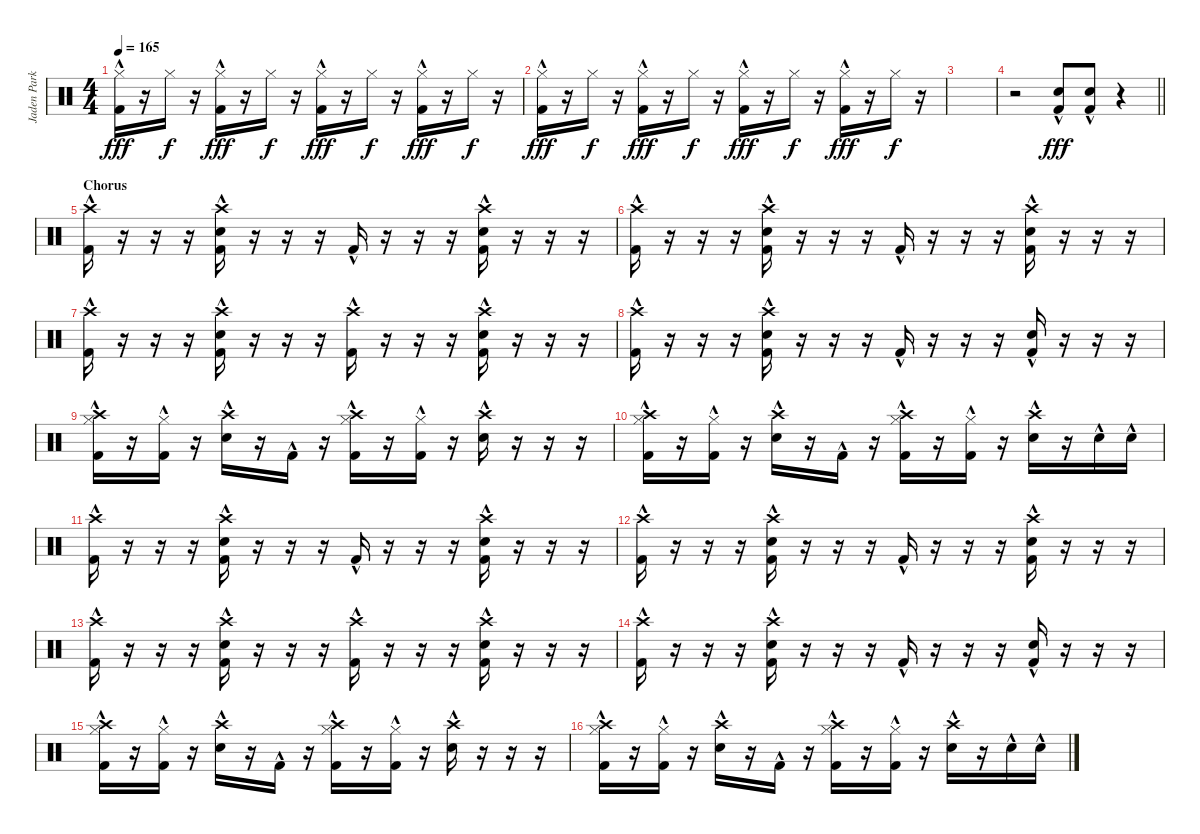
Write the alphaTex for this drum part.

\track ("Jaden Parkes" "Jaden Park") {instrument percussion}
\staff {score}
\articulation defaults
\ts (4 4)
\tempo 165
\clef neutral
\ks c
("Hi-Hat (closed)" "Kick (hit) 2"{hac}).16{dy fff} r.16 "Hi-Hat (closed)".16{dy f} r.16 ("Hi-Hat (closed)"{hac} "Kick (hit) 2"{hac}).16{dy fff} r.16 "Hi-Hat (closed)".16{dy f} r.16 ("Hi-Hat (closed)" "Kick (hit) 2"{hac}).16{dy fff} r.16 "Hi-Hat (closed)".16{dy f} r.16 ("Hi-Hat (closed)"{hac} "Kick (hit) 2"{hac}).16{dy fff} r.16 "Hi-Hat (closed)".16{dy f} r.16 |
("Hi-Hat (closed)" "Kick (hit) 2"{hac}).16{dy fff} r.16 "Hi-Hat (closed)".16{dy f} r.16 ("Hi-Hat (closed)"{hac} "Kick (hit) 2"{hac}).16{dy fff} r.16 "Hi-Hat (closed)".16{dy f} r.16 ("Hi-Hat (closed)" "Kick (hit) 2"{hac}).16{dy fff} r.16 "Hi-Hat (closed)".16{dy f} r.16 ("Hi-Hat (closed)"{hac} "Kick (hit) 2"{hac}).16{dy fff} r.16 "Hi-Hat (closed)".16{dy f} r.16 |
|
\barLineRight lightlight
r.2 ("Electric Snare (hit)"{hac} "Kick (hit) 2"{hac}).8{dy fff} ("Electric Snare (hit)"{hac} "Kick (hit) 2"{hac}).8 r.4 |
\section ("" "Chorus")
("Crash high (hit)" "Kick (hit) 2"{hac}).16 r.16 r.16 r.16 ("Crash high (hit)"{hac} "Electric Snare (hit)" "Kick (hit) 2"{hac}).16 r.16 r.16 r.16 "Kick (hit) 2"{hac}.16 r.16 r.16 r.16 ("Crash high (hit)"{hac} "Electric Snare (hit)" "Kick (hit) 2"{hac}).16 r.16 r.16 r.16 |
("Crash high (hit)" "Kick (hit) 2"{hac}).16 r.16 r.16 r.16 ("Crash high (hit)"{hac} "Electric Snare (hit)" "Kick (hit) 2"{hac}).16 r.16 r.16 r.16 "Kick (hit) 2"{hac}.16 r.16 r.16 r.16 ("Crash high (hit)"{hac} "Electric Snare (hit)" "Kick (hit) 2"{hac}).16 r.16 r.16 r.16 |
("Crash high (hit)" "Kick (hit) 2"{hac}).16 r.16 r.16 r.16 ("Crash high (hit)"{hac} "Electric Snare (hit)" "Kick (hit) 2"{hac}).16 r.16 r.16 r.16 ("Crash high (hit)" "Kick (hit) 2"{hac}).16 r.16 r.16 r.16 ("Crash high (hit)"{hac} "Electric Snare (hit)" "Kick (hit) 2"{hac}).16 r.16 r.16 r.16 |
("Crash high (hit)" "Kick (hit) 2"{hac}).16 r.16 r.16 r.16 ("Crash high (hit)"{hac} "Electric Snare (hit)" "Kick (hit) 2"{hac}).16 r.16 r.16 r.16 "Kick (hit) 2"{hac}.16 r.16 r.16 r.16 ("Electric Snare (hit)" "Kick (hit) 2"{hac}).16 r.16 r.16 r.16 |
("Hi-Hat (closed)"{hac} "Crash high (hit)" "Kick (hit) 2"{hac}).16 r.16 ("Hi-Hat (closed)"{hac} "Kick (hit) 2"{hac}).16 r.16 ("Crash high (hit)"{hac} "Electric Snare (hit)"{hac}).16 r.16 "Kick (hit) 2"{hac}.16 r.16 ("Hi-Hat (closed)"{hac} "Crash high (hit)" "Kick (hit) 2"{hac}).16 r.16 ("Hi-Hat (closed)"{hac} "Kick (hit) 2"{hac}).16 r.16 ("Crash high (hit)"{hac} "Electric Snare (hit)"{hac}).16 r.16 r.16 r.16 |
("Hi-Hat (closed)"{hac} "Crash high (hit)" "Kick (hit) 2"{hac}).16 r.16 ("Hi-Hat (closed)"{hac} "Kick (hit) 2"{hac}).16 r.16 ("Crash high (hit)"{hac} "Electric Snare (hit)"{hac}).16 r.16 "Kick (hit) 2"{hac}.16 r.16 ("Hi-Hat (closed)"{hac} "Crash high (hit)" "Kick (hit) 2"{hac}).16 r.16 ("Hi-Hat (closed)"{hac} "Kick (hit) 2"{hac}).16 r.16 ("Crash high (hit)"{hac} "Electric Snare (hit)"{hac}).16 r.16 "Electric Snare (hit)"{hac}.16 "Electric Snare (hit)"{hac}.16 |
("Crash high (hit)" "Kick (hit) 2"{hac}).16 r.16 r.16 r.16 ("Crash high (hit)"{hac} "Electric Snare (hit)" "Kick (hit) 2"{hac}).16 r.16 r.16 r.16 "Kick (hit) 2"{hac}.16 r.16 r.16 r.16 ("Crash high (hit)"{hac} "Electric Snare (hit)" "Kick (hit) 2"{hac}).16 r.16 r.16 r.16 |
("Crash high (hit)" "Kick (hit) 2"{hac}).16 r.16 r.16 r.16 ("Crash high (hit)"{hac} "Electric Snare (hit)" "Kick (hit) 2"{hac}).16 r.16 r.16 r.16 "Kick (hit) 2"{hac}.16 r.16 r.16 r.16 ("Crash high (hit)"{hac} "Electric Snare (hit)" "Kick (hit) 2"{hac}).16 r.16 r.16 r.16 |
("Crash high (hit)" "Kick (hit) 2"{hac}).16 r.16 r.16 r.16 ("Crash high (hit)"{hac} "Electric Snare (hit)" "Kick (hit) 2"{hac}).16 r.16 r.16 r.16 ("Crash high (hit)" "Kick (hit) 2"{hac}).16 r.16 r.16 r.16 ("Crash high (hit)"{hac} "Electric Snare (hit)" "Kick (hit) 2"{hac}).16 r.16 r.16 r.16 |
("Crash high (hit)" "Kick (hit) 2"{hac}).16 r.16 r.16 r.16 ("Crash high (hit)"{hac} "Electric Snare (hit)" "Kick (hit) 2"{hac}).16 r.16 r.16 r.16 "Kick (hit) 2"{hac}.16 r.16 r.16 r.16 ("Electric Snare (hit)" "Kick (hit) 2"{hac}).16 r.16 r.16 r.16 |
("Hi-Hat (closed)"{hac} "Crash high (hit)" "Kick (hit) 2"{hac}).16 r.16 ("Hi-Hat (closed)"{hac} "Kick (hit) 2"{hac}).16 r.16 ("Crash high (hit)"{hac} "Electric Snare (hit)"{hac}).16 r.16 "Kick (hit) 2"{hac}.16 r.16 ("Hi-Hat (closed)"{hac} "Crash high (hit)" "Kick (hit) 2"{hac}).16 r.16 ("Hi-Hat (closed)"{hac} "Kick (hit) 2"{hac}).16 r.16 ("Crash high (hit)"{hac} "Electric Snare (hit)"{hac}).16 r.16 r.16 r.16 |
("Hi-Hat (closed)"{hac} "Crash high (hit)" "Kick (hit) 2"{hac}).16 r.16 ("Hi-Hat (closed)"{hac} "Kick (hit) 2"{hac}).16 r.16 ("Crash high (hit)"{hac} "Electric Snare (hit)"{hac}).16 r.16 "Kick (hit) 2"{hac}.16 r.16 ("Hi-Hat (closed)"{hac} "Crash high (hit)" "Kick (hit) 2"{hac}).16 r.16 ("Hi-Hat (closed)"{hac} "Kick (hit) 2"{hac}).16 r.16 ("Crash high (hit)"{hac} "Electric Snare (hit)"{hac}).16 r.16 "Electric Snare (hit)"{hac}.16 "Electric Snare (hit)"{hac}.16
